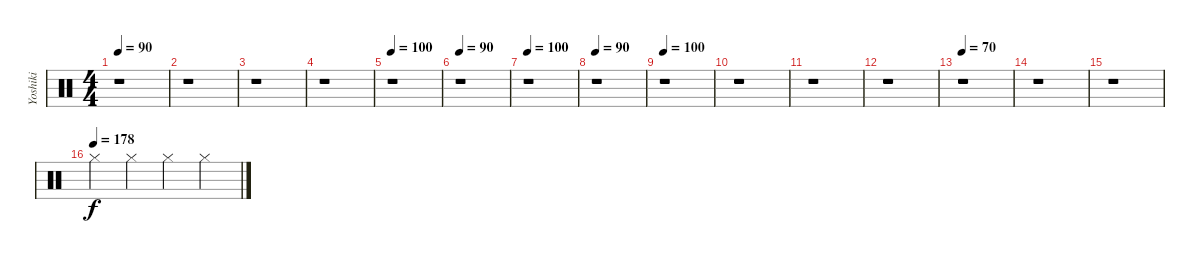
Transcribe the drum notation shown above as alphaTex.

\track ("Yoshiki" "Yoshiki") {instrument percussion}
\staff {score}
\articulation defaults
\ts (4 4)
\tempo 90
\clef neutral
\ks c
r.1{dy f} |
r.1 |
r.1 |
r.1 |
\tempo 100
r.1 |
\tempo 90
r.1 |
\tempo 100
r.1 |
\tempo 90
r.1 |
\tempo 100
r.1 |
r.1 |
r.1 |
r.1 |
\tempo 70
r.1 |
r.1 |
r.1 |
\tempo (178)
"Hi-Hat (closed)".4 "Hi-Hat (closed)".4 "Hi-Hat (closed)".4 "Hi-Hat (closed)".4
